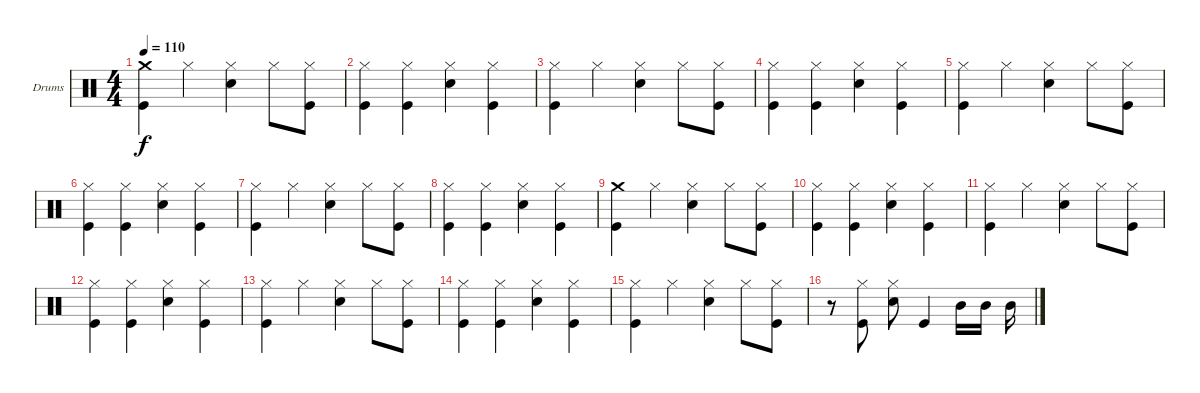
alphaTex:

\defaultSystemsLayout 4
\bracketExtendMode groupsimilarinstruments
\firstSystemTrackNameOrientation horizontal
\otherSystemsTrackNameOrientation horizontal
\track ("Drum" "Drums") {instrument percussion}
\staff {score}
\articulation defaults
\ts (4 4)
\tempo 110
\clef neutral
\ks c
("Crash medium (hit)" "Kick (hit)").4{dy f} "Hi-Hat (closed)".4 ("Hi-Hat (closed)" "Snare (hit) 2").4 "Hi-Hat (closed)".8 ("Hi-Hat (closed)" "Kick (hit)").8 |
("Hi-Hat (closed)" "Kick (hit)").4 ("Hi-Hat (closed)" "Kick (hit)").4 ("Hi-Hat (closed)" "Snare (hit) 2").4 ("Hi-Hat (closed)" "Kick (hit)").4 |
("Hi-Hat (closed)" "Kick (hit)").4 "Hi-Hat (closed)".4 ("Hi-Hat (closed)" "Snare (hit) 2").4 "Hi-Hat (closed)".8 ("Hi-Hat (closed)" "Kick (hit)").8 |
("Hi-Hat (closed)" "Kick (hit)").4 ("Hi-Hat (closed)" "Kick (hit)").4 ("Hi-Hat (closed)" "Snare (hit) 2").4 ("Hi-Hat (closed)" "Kick (hit)").4 |
("Hi-Hat (closed)" "Kick (hit)").4 "Hi-Hat (closed)".4 ("Hi-Hat (closed)" "Snare (hit) 2").4 "Hi-Hat (closed)".8 ("Hi-Hat (closed)" "Kick (hit)").8 |
("Hi-Hat (closed)" "Kick (hit)").4 ("Hi-Hat (closed)" "Kick (hit)").4 ("Hi-Hat (closed)" "Snare (hit) 2").4 ("Hi-Hat (closed)" "Kick (hit)").4 |
("Hi-Hat (closed)" "Kick (hit)").4 "Hi-Hat (closed)".4 ("Hi-Hat (closed)" "Snare (hit) 2").4 "Hi-Hat (closed)".8 ("Hi-Hat (closed)" "Kick (hit)").8 |
("Hi-Hat (closed)" "Kick (hit)").4 ("Hi-Hat (closed)" "Kick (hit)").4 ("Hi-Hat (closed)" "Snare (hit) 2").4 ("Hi-Hat (closed)" "Kick (hit)").4 |
("Crash medium (hit)" "Kick (hit)").4 "Hi-Hat (closed)".4 ("Hi-Hat (closed)" "Snare (hit) 2").4 "Hi-Hat (closed)".8 ("Hi-Hat (closed)" "Kick (hit)").8 |
("Hi-Hat (closed)" "Kick (hit)").4 ("Hi-Hat (closed)" "Kick (hit)").4 ("Hi-Hat (closed)" "Snare (hit) 2").4 ("Hi-Hat (closed)" "Kick (hit)").4 |
("Hi-Hat (closed)" "Kick (hit)").4 "Hi-Hat (closed)".4 ("Hi-Hat (closed)" "Snare (hit) 2").4 "Hi-Hat (closed)".8 ("Hi-Hat (closed)" "Kick (hit)").8 |
("Hi-Hat (closed)" "Kick (hit)").4 ("Hi-Hat (closed)" "Kick (hit)").4 ("Hi-Hat (closed)" "Snare (hit) 2").4 ("Hi-Hat (closed)" "Kick (hit)").4 |
("Hi-Hat (closed)" "Kick (hit)").4 "Hi-Hat (closed)".4 ("Hi-Hat (closed)" "Snare (hit) 2").4 "Hi-Hat (closed)".8 ("Hi-Hat (closed)" "Kick (hit)").8 |
("Hi-Hat (closed)" "Kick (hit)").4 ("Hi-Hat (closed)" "Kick (hit)").4 ("Hi-Hat (closed)" "Snare (hit) 2").4 ("Hi-Hat (closed)" "Kick (hit)").4 |
("Hi-Hat (closed)" "Kick (hit)").4 "Hi-Hat (closed)".4 ("Hi-Hat (closed)" "Snare (hit) 2").4 "Hi-Hat (closed)".8 ("Hi-Hat (closed)" "Kick (hit)").8 |
r.8 ("Hi-Hat (closed)" "Kick (hit)").8 ("Hi-Hat (closed)" "Snare (hit) 2").8 "Kick (hit)".4 "Mid Tom (hit)".16 "Mid Tom (hit)".16 "Mid Tom (hit)".16
